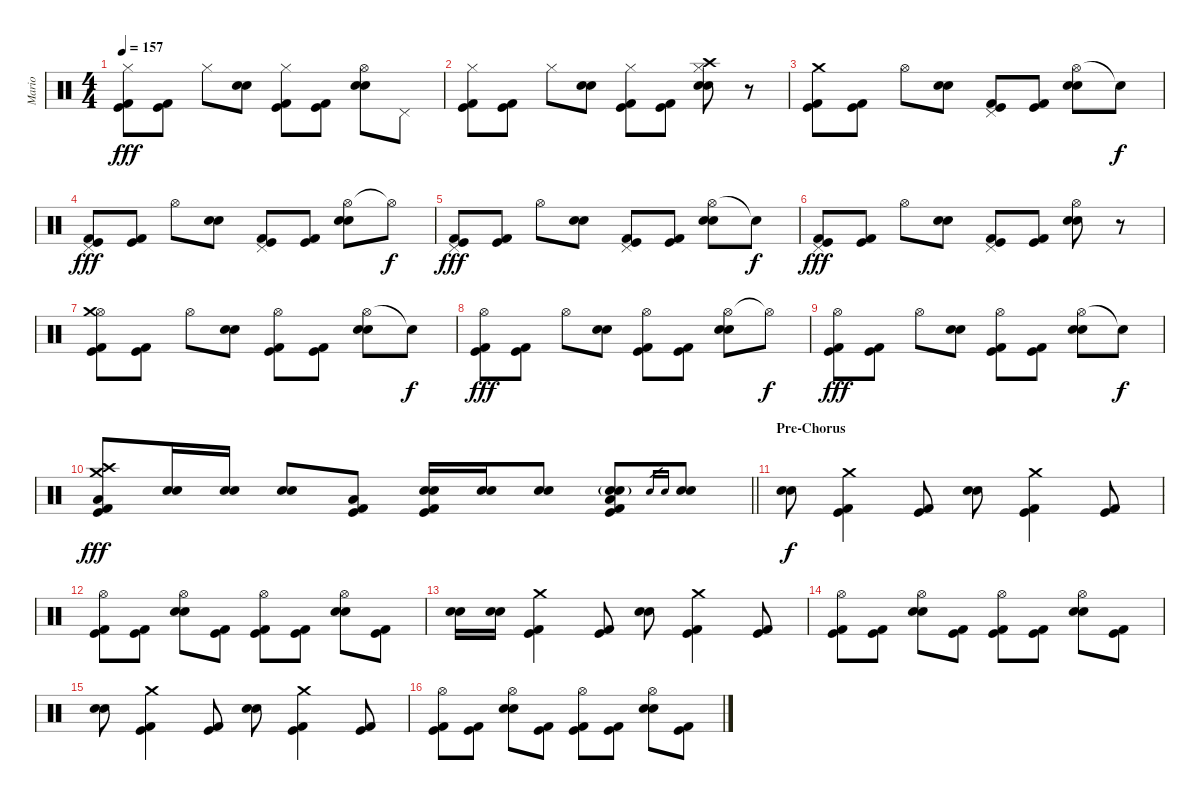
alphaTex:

\track ("Mario" "Mario") {instrument percussion}
\staff {score}
\articulation defaults
\ts (4 4)
\tempo 157
\clef neutral
\ks c
("Hi-Hat (closed)" "Kick (hit)" "Kick (hit) 2").8{dy fff} ("Kick (hit)" "Kick (hit) 2").8 "Hi-Hat (closed)".8 ("Electric Snare (hit)" "Snare (hit) 2").8 ("Hi-Hat (closed)" "Kick (hit)" "Kick (hit) 2").8 ("Kick (hit)" "Kick (hit) 2").8 ("Hi-Hat (open)" "Electric Snare (hit)" "Snare (hit) 2").8 "Pedal Hi-Hat (hit)".8 |
("Hi-Hat (closed)" "Kick (hit)" "Kick (hit) 2").8 ("Kick (hit)" "Kick (hit) 2").8 "Hi-Hat (closed)".8 ("Electric Snare (hit)" "Snare (hit) 2").8 ("Hi-Hat (closed)" "Kick (hit)" "Kick (hit) 2").8 ("Kick (hit)" "Kick (hit) 2").8 ("Hi-Hat (closed)" "Crash high (hit)" "Electric Snare (hit)" "Snare (hit) 2").8 r.8 |
("Crash medium (hit)" "Kick (hit)" "Kick (hit) 2").8 ("Kick (hit)" "Kick (hit) 2").8 "Hi-Hat (open)".8 ("Electric Snare (hit)" "Snare (hit) 2").8 ("Pedal Hi-Hat (hit)" "Kick (hit)" "Kick (hit) 2").8 ("Kick (hit)" "Kick (hit) 2").8 ("Hi-Hat (open)" "Electric Snare (hit)" "Snare (hit) 2").8 "Snare (hit)"{t}.8{dy f} |
("Pedal Hi-Hat (hit)" "Kick (hit)" "Kick (hit) 2").8{dy fff} ("Kick (hit)" "Kick (hit) 2").8 "Hi-Hat (open)".8 ("Electric Snare (hit)" "Snare (hit) 2").8 ("Pedal Hi-Hat (hit)" "Kick (hit)" "Kick (hit) 2").8 ("Kick (hit)" "Kick (hit) 2").8 ("Hi-Hat (open)" "Electric Snare (hit)" "Snare (hit) 2").8 "Hi-Hat (open)"{t}.8{dy f} |
("Pedal Hi-Hat (hit)" "Kick (hit)" "Kick (hit) 2").8{dy fff} ("Kick (hit)" "Kick (hit) 2").8 "Hi-Hat (open)".8 ("Electric Snare (hit)" "Snare (hit) 2").8 ("Pedal Hi-Hat (hit)" "Kick (hit)" "Kick (hit) 2").8 ("Kick (hit)" "Kick (hit) 2").8 ("Hi-Hat (open)" "Electric Snare (hit)" "Snare (hit) 2").8 "Snare (hit)"{t}.8{dy f} |
("Pedal Hi-Hat (hit)" "Kick (hit)" "Kick (hit) 2").8{dy fff} ("Kick (hit)" "Kick (hit) 2").8 "Hi-Hat (open)".8 ("Electric Snare (hit)" "Snare (hit) 2").8 ("Pedal Hi-Hat (hit)" "Kick (hit)" "Kick (hit) 2").8 ("Kick (hit)" "Kick (hit) 2").8 ("Hi-Hat (open)" "Electric Snare (hit)" "Snare (hit) 2").8 r.8 |
("Hi-Hat (open)" "Crash medium (hit)" "Kick (hit)" "Kick (hit) 2").8 ("Kick (hit)" "Kick (hit) 2").8 "Hi-Hat (open)".8 ("Electric Snare (hit)" "Snare (hit) 2").8 ("Hi-Hat (open)" "Kick (hit)" "Kick (hit) 2").8 ("Kick (hit)" "Kick (hit) 2").8 ("Hi-Hat (open)" "Electric Snare (hit)" "Snare (hit) 2").8 "Snare (hit)"{t}.8{dy f} |
("Hi-Hat (open)" "Kick (hit)" "Kick (hit) 2").8{dy fff} ("Kick (hit)" "Kick (hit) 2").8 "Hi-Hat (open)".8 ("Electric Snare (hit)" "Snare (hit) 2").8 ("Hi-Hat (open)" "Kick (hit)" "Kick (hit) 2").8 ("Kick (hit)" "Kick (hit) 2").8 ("Hi-Hat (open)" "Electric Snare (hit)" "Snare (hit) 2").8 "Hi-Hat (open)"{t}.8{dy f} |
("Hi-Hat (open)" "Kick (hit)" "Kick (hit) 2").8{dy fff} ("Kick (hit)" "Kick (hit) 2").8 "Hi-Hat (open)".8 ("Electric Snare (hit)" "Snare (hit) 2").8 ("Hi-Hat (open)" "Kick (hit)" "Kick (hit) 2").8 ("Kick (hit)" "Kick (hit) 2").8 ("Hi-Hat (open)" "Electric Snare (hit)" "Snare (hit) 2").8 "Snare (hit)"{t}.8{dy f} |
\barLineRight lightlight
("Crash high (hit)" "Crash medium (hit)" "Low Tom (hit)" "Kick (hit)" "Kick (hit) 2").8{dy fff} ("Electric Snare (hit)" "Snare (hit) 2").16 ("Electric Snare (hit)" "Snare (hit) 2").16 ("Electric Snare (hit)" "Snare (hit) 2").8 ("Low Tom (hit)" "Kick (hit)" "Kick (hit) 2").8 ("Electric Snare (hit)" "Snare (hit) 2" "Kick (hit)" "Kick (hit) 2").16 ("Electric Snare (hit)" "Snare (hit) 2").16 ("Electric Snare (hit)" "Snare (hit) 2").8 ("Electric Snare (hit)"{g} "Snare (hit) 2"{g} "Low Tom (hit)" "Kick (hit)" "Kick (hit) 2").8 "Electric Snare (hit)".16{gr} "Snare (hit) 2".16{gr} ("Electric Snare (hit)" "Snare (hit) 2").8 |
\section ("" "Pre-Chorus")
("Snare (hit) 2" "Electric Snare (hit)").8{dy f} ("Crash medium (hit)" "Kick (hit)" "Kick (hit) 2").4 ("Kick (hit)" "Kick (hit) 2").8 ("Snare (hit) 2" "Electric Snare (hit)").8 ("Crash medium (hit)" "Kick (hit)" "Kick (hit) 2").4 ("Kick (hit)" "Kick (hit) 2").8 |
("Hi-Hat (open)" "Kick (hit)" "Kick (hit) 2").8 ("Kick (hit)" "Kick (hit) 2").8 ("Hi-Hat (open)" "Snare (hit) 2" "Electric Snare (hit)").8 ("Kick (hit)" "Kick (hit) 2").8 ("Hi-Hat (open)" "Kick (hit)" "Kick (hit) 2").8 ("Kick (hit)" "Kick (hit) 2").8 ("Hi-Hat (open)" "Snare (hit) 2" "Electric Snare (hit)").8 ("Kick (hit)" "Kick (hit) 2").8 |
("Snare (hit) 2" "Electric Snare (hit)").16 ("Snare (hit) 2" "Electric Snare (hit)").16 ("Crash medium (hit)" "Kick (hit)" "Kick (hit) 2").4 ("Kick (hit)" "Kick (hit) 2").8 ("Snare (hit) 2" "Electric Snare (hit)").8 ("Crash medium (hit)" "Kick (hit)" "Kick (hit) 2").4 ("Kick (hit)" "Kick (hit) 2").8 |
("Hi-Hat (open)" "Kick (hit)" "Kick (hit) 2").8 ("Kick (hit)" "Kick (hit) 2").8 ("Hi-Hat (open)" "Snare (hit) 2" "Electric Snare (hit)").8 ("Kick (hit)" "Kick (hit) 2").8 ("Hi-Hat (open)" "Kick (hit)" "Kick (hit) 2").8 ("Kick (hit)" "Kick (hit) 2").8 ("Hi-Hat (open)" "Snare (hit) 2" "Electric Snare (hit)").8 ("Kick (hit)" "Kick (hit) 2").8 |
("Snare (hit) 2" "Electric Snare (hit)").8 ("Crash medium (hit)" "Kick (hit)" "Kick (hit) 2").4 ("Kick (hit)" "Kick (hit) 2").8 ("Snare (hit) 2" "Electric Snare (hit)").8 ("Crash medium (hit)" "Kick (hit)" "Kick (hit) 2").4 ("Kick (hit)" "Kick (hit) 2").8 |
("Hi-Hat (open)" "Kick (hit)" "Kick (hit) 2").8 ("Kick (hit)" "Kick (hit) 2").8 ("Hi-Hat (open)" "Snare (hit) 2" "Electric Snare (hit)").8 ("Kick (hit)" "Kick (hit) 2").8 ("Hi-Hat (open)" "Kick (hit)" "Kick (hit) 2").8 ("Kick (hit)" "Kick (hit) 2").8 ("Hi-Hat (open)" "Snare (hit) 2" "Electric Snare (hit)").8 ("Kick (hit)" "Kick (hit) 2").8
